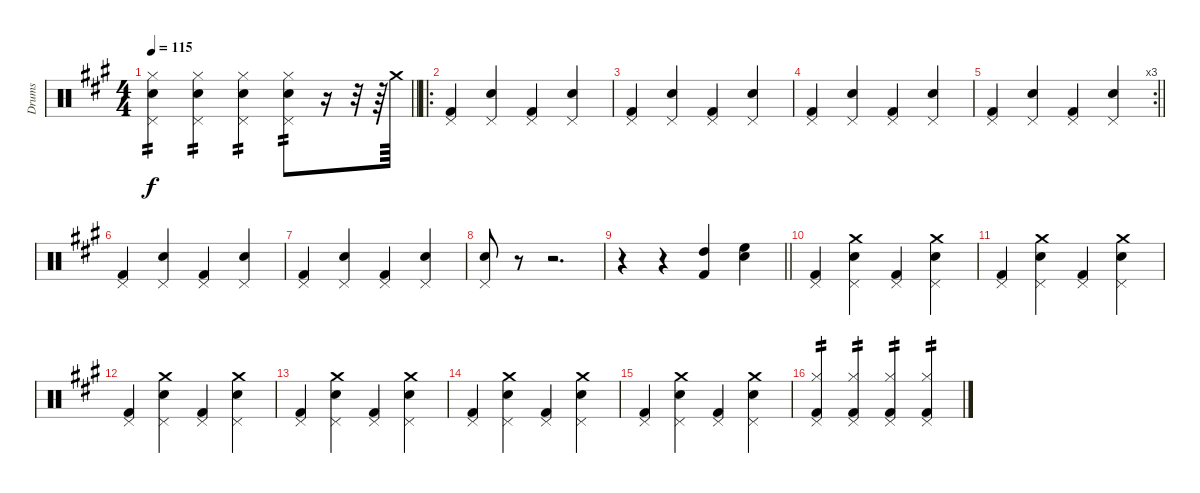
\track ("Drums" "Drums") {instrument percussion}
\staff {score}
\articulation defaults
\ts (4 4)
\tempo 115
\clef neutral
\barLineRight lightlight
\ks a
("Snare (hit) 2" "Pedal Hi-Hat (hit)" "Hi-Hat (closed)").4{tp 2 dy f} ("Snare (hit) 2" "Pedal Hi-Hat (hit)" "Hi-Hat (closed)").4{tp 2} ("Snare (hit) 2" "Pedal Hi-Hat (hit)" "Hi-Hat (closed)").4{tp 2} ("Snare (hit) 2" "Pedal Hi-Hat (hit)" "Hi-Hat (closed)").8{tp 2} r.16 r.32 r.64 "Crash medium (hit)".64 |
\ro
("Kick (hit) 2" "Pedal Hi-Hat (hit)").4 ("Snare (hit) 2" "Pedal Hi-Hat (hit)").4 ("Kick (hit) 2" "Pedal Hi-Hat (hit)").4 ("Snare (hit) 2" "Pedal Hi-Hat (hit)").4 |
("Kick (hit) 2" "Pedal Hi-Hat (hit)").4 ("Snare (hit) 2" "Pedal Hi-Hat (hit)").4 ("Kick (hit) 2" "Pedal Hi-Hat (hit)").4 ("Snare (hit) 2" "Pedal Hi-Hat (hit)").4 |
("Kick (hit) 2" "Pedal Hi-Hat (hit)").4 ("Snare (hit) 2" "Pedal Hi-Hat (hit)").4 ("Kick (hit) 2" "Pedal Hi-Hat (hit)").4 ("Snare (hit) 2" "Pedal Hi-Hat (hit)").4 |
\rc 3
\barLineRight lightlight
("Kick (hit) 2" "Pedal Hi-Hat (hit)").4 ("Snare (hit) 2" "Pedal Hi-Hat (hit)").4 ("Kick (hit) 2" "Pedal Hi-Hat (hit)").4 ("Snare (hit) 2" "Pedal Hi-Hat (hit)").4 |
("Kick (hit) 2" "Pedal Hi-Hat (hit)").4 ("Snare (hit) 2" "Pedal Hi-Hat (hit)").4 ("Kick (hit) 2" "Pedal Hi-Hat (hit)").4 ("Snare (hit) 2" "Pedal Hi-Hat (hit)").4 |
("Kick (hit) 2" "Pedal Hi-Hat (hit)").4 ("Snare (hit) 2" "Pedal Hi-Hat (hit)").4 ("Kick (hit) 2" "Pedal Hi-Hat (hit)").4 ("Snare (hit) 2" "Pedal Hi-Hat (hit)").4 |
("Snare (hit) 2" "Pedal Hi-Hat (hit)").8 r.8 r.2{d} |
\barLineRight lightlight
r.4 r.4 ("Kick (hit) 2" "High Tom (hit)").4 ("Snare (hit) 2" "High Floor Tom (hit)").4 |
("Kick (hit) 2" "Pedal Hi-Hat (hit)").4 ("Snare (hit) 2" "Pedal Hi-Hat (hit)" "Crash medium (hit)").4 ("Kick (hit) 2" "Pedal Hi-Hat (hit)").4 ("Snare (hit) 2" "Pedal Hi-Hat (hit)" "Crash medium (hit)").4 |
("Kick (hit) 2" "Pedal Hi-Hat (hit)").4 ("Snare (hit) 2" "Pedal Hi-Hat (hit)" "Crash medium (hit)").4 ("Kick (hit) 2" "Pedal Hi-Hat (hit)").4 ("Snare (hit) 2" "Pedal Hi-Hat (hit)" "Crash medium (hit)").4 |
("Kick (hit) 2" "Pedal Hi-Hat (hit)").4 ("Snare (hit) 2" "Pedal Hi-Hat (hit)" "Crash medium (hit)").4 ("Kick (hit) 2" "Pedal Hi-Hat (hit)").4 ("Snare (hit) 2" "Pedal Hi-Hat (hit)" "Crash medium (hit)").4 |
("Kick (hit) 2" "Pedal Hi-Hat (hit)").4 ("Snare (hit) 2" "Pedal Hi-Hat (hit)" "Crash medium (hit)").4 ("Kick (hit) 2" "Pedal Hi-Hat (hit)").4 ("Snare (hit) 2" "Pedal Hi-Hat (hit)" "Crash medium (hit)").4 |
("Kick (hit) 2" "Pedal Hi-Hat (hit)").4 ("Snare (hit) 2" "Pedal Hi-Hat (hit)" "Crash medium (hit)").4 ("Kick (hit) 2" "Pedal Hi-Hat (hit)").4 ("Snare (hit) 2" "Pedal Hi-Hat (hit)" "Crash medium (hit)").4 |
("Kick (hit) 2" "Pedal Hi-Hat (hit)").4 ("Snare (hit) 2" "Pedal Hi-Hat (hit)" "Crash medium (hit)").4 ("Kick (hit) 2" "Pedal Hi-Hat (hit)").4 ("Snare (hit) 2" "Pedal Hi-Hat (hit)" "Crash medium (hit)").4 |
("Kick (hit) 2" "Pedal Hi-Hat (hit)" "Hi-Hat (closed)").4{tp 2} ("Kick (hit) 2" "Pedal Hi-Hat (hit)" "Hi-Hat (closed)").4{tp 2} ("Kick (hit) 2" "Pedal Hi-Hat (hit)" "Hi-Hat (closed)").4{tp 2} ("Kick (hit) 2" "Pedal Hi-Hat (hit)" "Hi-Hat (closed)").4{tp 2}
